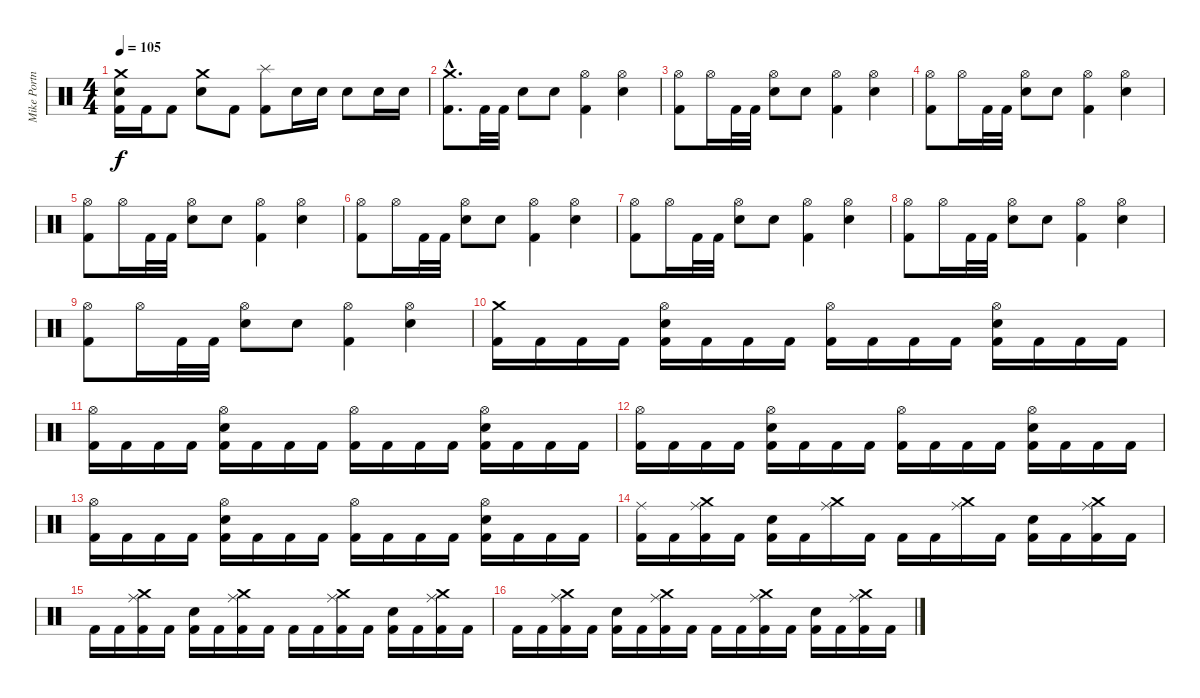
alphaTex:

\track ("Mike Portnoy" "Mike Portn") {instrument percussion}
\staff {score}
\articulation defaults
\ts (4 4)
\tempo 105
\clef neutral
\ks c
("Crash medium (hit)" "Electric Snare (hit)" "Kick (hit) 2").16{dy f} "Kick (hit) 2".16 "Kick (hit) 2".8 ("Crash medium (hit)" "Electric Snare (hit)").8 "Kick (hit) 2".8 ("Splash (hit)" "Kick (hit) 2").8 "Electric Snare (hit)".16 "Electric Snare (hit)".16 "Electric Snare (hit)".8 "Electric Snare (hit)".16 "Electric Snare (hit)".16 |
("Crash medium (hit)"{hac} "Kick (hit) 2"{hac}).8{d} "Kick (hit) 2".32 "Kick (hit) 2".32 "Electric Snare (hit)".8 "Electric Snare (hit)".8 ("Hi-Hat (open)" "Kick (hit) 2").4 ("Hi-Hat (open)" "Electric Snare (hit)").4 |
("Hi-Hat (open)" "Kick (hit) 2").8 "Hi-Hat (open)".16 "Kick (hit) 2".32 "Kick (hit) 2".32 ("Hi-Hat (open)" "Electric Snare (hit)").8 "Electric Snare (hit)".8 ("Hi-Hat (open)" "Kick (hit) 2").4 ("Hi-Hat (open)" "Electric Snare (hit)").4 |
("Hi-Hat (open)" "Kick (hit) 2").8 "Hi-Hat (open)".16 "Kick (hit) 2".32 "Kick (hit) 2".32 ("Hi-Hat (open)" "Electric Snare (hit)").8 "Electric Snare (hit)".8 ("Hi-Hat (open)" "Kick (hit) 2").4 ("Hi-Hat (open)" "Electric Snare (hit)").4 |
("Hi-Hat (open)" "Kick (hit) 2").8 "Hi-Hat (open)".16 "Kick (hit) 2".32 "Kick (hit) 2".32 ("Hi-Hat (open)" "Electric Snare (hit)").8 "Electric Snare (hit)".8 ("Hi-Hat (open)" "Kick (hit) 2").4 ("Hi-Hat (open)" "Electric Snare (hit)").4 |
("Hi-Hat (open)" "Kick (hit) 2").8 "Hi-Hat (open)".16 "Kick (hit) 2".32 "Kick (hit) 2".32 ("Hi-Hat (open)" "Electric Snare (hit)").8 "Electric Snare (hit)".8 ("Hi-Hat (open)" "Kick (hit) 2").4 ("Hi-Hat (open)" "Electric Snare (hit)").4 |
("Hi-Hat (open)" "Kick (hit) 2").8 "Hi-Hat (open)".16 "Kick (hit) 2".32 "Kick (hit) 2".32 ("Hi-Hat (open)" "Electric Snare (hit)").8 "Electric Snare (hit)".8 ("Hi-Hat (open)" "Kick (hit) 2").4 ("Hi-Hat (open)" "Electric Snare (hit)").4 |
("Hi-Hat (open)" "Kick (hit) 2").8 "Hi-Hat (open)".16 "Kick (hit) 2".32 "Kick (hit) 2".32 ("Hi-Hat (open)" "Electric Snare (hit)").8 "Electric Snare (hit)".8 ("Hi-Hat (open)" "Kick (hit) 2").4 ("Hi-Hat (open)" "Electric Snare (hit)").4 |
("Hi-Hat (open)" "Kick (hit) 2").8 "Hi-Hat (open)".16 "Kick (hit) 2".32 "Kick (hit) 2".32 ("Hi-Hat (open)" "Electric Snare (hit)").8 "Electric Snare (hit)".8 ("Hi-Hat (open)" "Kick (hit) 2").4 ("Hi-Hat (open)" "Electric Snare (hit)").4 |
("Crash medium (hit)" "Kick (hit) 2").16 "Kick (hit) 2".16 "Kick (hit) 2".16 "Kick (hit) 2".16 ("Hi-Hat (open)" "Electric Snare (hit)" "Kick (hit) 2").16 "Kick (hit) 2".16 "Kick (hit) 2".16 "Kick (hit) 2".16 ("Hi-Hat (open)" "Kick (hit) 2").16 "Kick (hit) 2".16 "Kick (hit) 2".16 "Kick (hit) 2".16 ("Hi-Hat (open)" "Electric Snare (hit)" "Kick (hit) 2").16 "Kick (hit) 2".16 "Kick (hit) 2".16 "Kick (hit) 2".16 |
("Hi-Hat (open)" "Kick (hit) 2").16 "Kick (hit) 2".16 "Kick (hit) 2".16 "Kick (hit) 2".16 ("Hi-Hat (open)" "Electric Snare (hit)" "Kick (hit) 2").16 "Kick (hit) 2".16 "Kick (hit) 2".16 "Kick (hit) 2".16 ("Hi-Hat (open)" "Kick (hit) 2").16 "Kick (hit) 2".16 "Kick (hit) 2".16 "Kick (hit) 2".16 ("Hi-Hat (open)" "Electric Snare (hit)" "Kick (hit) 2").16 "Kick (hit) 2".16 "Kick (hit) 2".16 "Kick (hit) 2".16 |
("Hi-Hat (open)" "Kick (hit) 2").16 "Kick (hit) 2".16 "Kick (hit) 2".16 "Kick (hit) 2".16 ("Hi-Hat (open)" "Electric Snare (hit)" "Kick (hit) 2").16 "Kick (hit) 2".16 "Kick (hit) 2".16 "Kick (hit) 2".16 ("Hi-Hat (open)" "Kick (hit) 2").16 "Kick (hit) 2".16 "Kick (hit) 2".16 "Kick (hit) 2".16 ("Hi-Hat (open)" "Electric Snare (hit)" "Kick (hit) 2").16 "Kick (hit) 2".16 "Kick (hit) 2".16 "Kick (hit) 2".16 |
("Hi-Hat (open)" "Kick (hit) 2").16 "Kick (hit) 2".16 "Kick (hit) 2".16 "Kick (hit) 2".16 ("Hi-Hat (open)" "Electric Snare (hit)" "Kick (hit) 2").16 "Kick (hit) 2".16 "Kick (hit) 2".16 "Kick (hit) 2".16 ("Hi-Hat (open)" "Kick (hit) 2").16 "Kick (hit) 2".16 "Kick (hit) 2".16 "Kick (hit) 2".16 ("Hi-Hat (open)" "Electric Snare (hit)" "Kick (hit) 2").16 "Kick (hit) 2".16 "Kick (hit) 2".16 "Kick (hit) 2".16 |
("Ride (middle)" "Kick (hit) 2").16 "Kick (hit) 2".16 ("Crash medium (hit)" "Ride (middle)" "Kick (hit) 2").16 "Kick (hit) 2".16 ("Electric Snare (hit)" "Kick (hit) 2").16 "Kick (hit) 2".16 ("Crash medium (hit)" "Ride (middle)").16 "Kick (hit) 2".16 "Kick (hit) 2".16 "Kick (hit) 2".16 ("Crash medium (hit)" "Ride (middle)").16 "Kick (hit) 2".16 ("Electric Snare (hit)" "Kick (hit) 2").16 "Kick (hit) 2".16 ("Crash medium (hit)" "Ride (middle)" "Kick (hit) 2").16 "Kick (hit) 2".16 |
"Kick (hit) 2".16 "Kick (hit) 2".16 ("Crash medium (hit)" "Ride (middle)" "Kick (hit) 2").16 "Kick (hit) 2".16 ("Electric Snare (hit)" "Kick (hit) 2").16 "Kick (hit) 2".16 ("Crash medium (hit)" "Ride (middle)" "Kick (hit) 2").16 "Kick (hit) 2".16 "Kick (hit) 2".16 "Kick (hit) 2".16 ("Crash medium (hit)" "Ride (middle)" "Kick (hit) 2").16 "Kick (hit) 2".16 ("Electric Snare (hit)" "Kick (hit) 2").16 "Kick (hit) 2".16 ("Crash medium (hit)" "Ride (middle)" "Kick (hit) 2").16 "Kick (hit) 2".16 |
"Kick (hit) 2".16 "Kick (hit) 2".16 ("Crash medium (hit)" "Ride (middle)" "Kick (hit) 2").16 "Kick (hit) 2".16 ("Electric Snare (hit)" "Kick (hit) 2").16 "Kick (hit) 2".16 ("Crash medium (hit)" "Ride (middle)" "Kick (hit) 2").16 "Kick (hit) 2".16 "Kick (hit) 2".16 "Kick (hit) 2".16 ("Crash medium (hit)" "Ride (middle)" "Kick (hit) 2").16 "Kick (hit) 2".16 ("Electric Snare (hit)" "Kick (hit) 2").16 "Kick (hit) 2".16 ("Crash medium (hit)" "Ride (middle)" "Kick (hit) 2").16 "Kick (hit) 2".16
